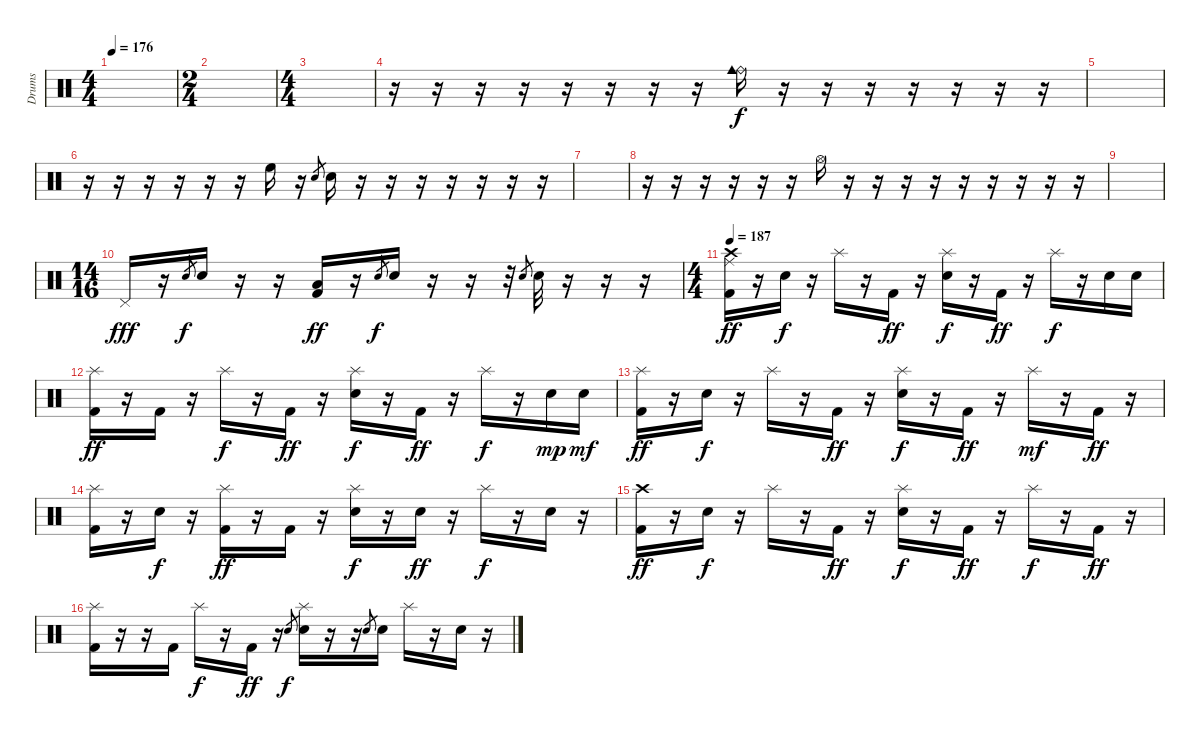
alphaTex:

\track ("Drums" "Drums") {instrument percussion}
\staff {score}
\articulation defaults
\ts (4 4)
\tempo 176
\clef neutral
\ks c
|
\ts (2 4)
|
\ts (4 4)
|
r.16 r.16 r.16 r.16 r.16 r.16 r.16 r.16 ("Ride (bell)" "Cowbell medium (hit)").16 r.16 r.16 r.16 r.16 r.16 r.16 r.16 |
|
r.16 r.16 r.16 r.16 r.16 r.16 "High Floor Tom (hit)".16 r.16 "Electric Snare (hit)".8{gr} "Electric Snare (hit)".16 r.16 r.16 r.16 r.16 r.16 r.16 r.16 |
|
r.16 r.16 r.16 r.16 r.16 r.16 "Hi-Hat (open)".16 r.16 r.16 r.16 r.16 r.16 r.16 r.16 r.16 r.16 |
|
\ts (14 16)
"Pedal Hi-Hat (hit)".16{dy fff} r.16 "Electric Snare (hit)".8{gr dy f} "Electric Snare (hit)".16 r.16 r.16 ("Low Floor Tom (hit)" "Kick (hit) 2").16{dy ff} r.16 "Electric Snare (hit)".8{gr dy f} "Electric Snare (hit)".16 r.16 r.16 r.32 "Electric Snare (hit)".8{gr} "Electric Snare (hit)".32 r.16 r.16 r.16 |
\ts (4 4)
\tempo 187
("Crash high (hit)" "Ride (middle)" "Kick (hit) 2").16{dy ff} r.16 "Electric Snare (hit)".16{dy f} r.16 "Splash (hit)".16 r.16 "Kick (hit) 2".16{dy ff} r.16 ("Splash (hit)" "Electric Snare (hit)").16{dy f} r.16 "Kick (hit) 2".16{dy ff} r.16 "Splash (hit)".16{dy f} r.16 "Electric Snare (hit)".16 "Electric Snare (hit)".16 |
("Splash (hit)" "Kick (hit) 2").16{dy ff} r.16 "Kick (hit) 2".16 r.16 "Splash (hit)".16{dy f} r.16 "Kick (hit) 2".16{dy ff} r.16 ("Splash (hit)" "Electric Snare (hit)").16{dy f} r.16 "Kick (hit) 2".16{dy ff} r.16 "Splash (hit)".16{dy f} r.16 "Electric Snare (hit)".16{dy mp} "Electric Snare (hit)".16{dy mf} |
("Splash (hit)" "Kick (hit) 2").16{dy ff} r.16 "Electric Snare (hit)".16{dy f} r.16 "Splash (hit)".16 r.16 "Kick (hit) 2".16{dy ff} r.16 ("Splash (hit)" "Electric Snare (hit)").16{dy f} r.16 "Kick (hit) 2".16{dy ff} r.16 "Splash (hit)".16{dy mf} r.16 "Kick (hit) 2".16{dy ff} r.16 |
("Splash (hit)" "Kick (hit) 2").16 r.16 "Electric Snare (hit)".16{dy f} r.16 ("Splash (hit)" "Kick (hit) 2").16{dy ff} r.16 "Kick (hit) 2".16 r.16 ("Splash (hit)" "Electric Snare (hit)").16{dy f} r.16 "Electric Snare (hit)".16{dy ff} r.16 "Splash (hit)".16{dy f} r.16 "Electric Snare (hit)".16 r.16 |
("Crash high (hit)" "Kick (hit) 2").16{dy ff} r.16 "Electric Snare (hit)".16{dy f} r.16 "Splash (hit)".16 r.16 "Kick (hit) 2".16{dy ff} r.16 ("Splash (hit)" "Electric Snare (hit)").16{dy f} r.16 "Kick (hit) 2".16{dy ff} r.16 "Splash (hit)".16{dy f} r.16 "Kick (hit) 2".16{dy ff} r.16 |
("Splash (hit)" "Kick (hit) 2").16 r.16 r.16 "Kick (hit) 2".16 "Splash (hit)".16{dy f} r.16 "Kick (hit) 2".16{dy ff} r.16 "Electric Snare (hit)".8{gr dy f} ("Splash (hit)" "Electric Snare (hit)").16 r.16 r.16 "Electric Snare (hit)".8{gr} "Electric Snare (hit)".16 "Splash (hit)".16 r.16 "Electric Snare (hit)".16 r.16
